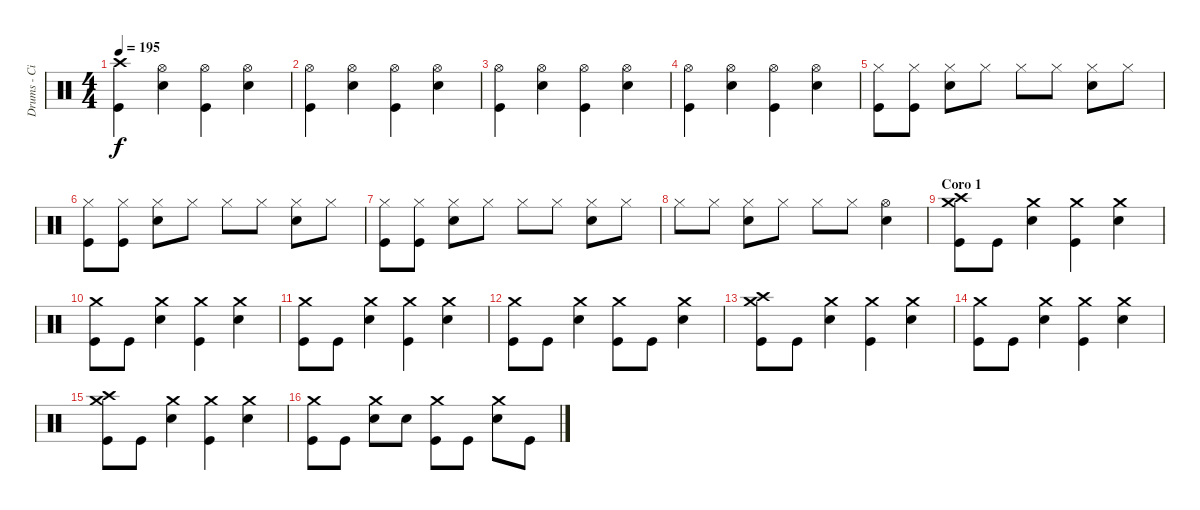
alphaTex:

\track ("Drums - Ciro" "Drums - Ci") {instrument percussion}
\staff {score}
\articulation defaults
\ts (4 4)
\tempo 195
\clef neutral
\ks c
("Crash high (hit)" "Kick (hit)").4{dy f} ("Hi-Hat (open)" "Electric Snare (hit)").4 ("Hi-Hat (open)" "Kick (hit)").4 ("Hi-Hat (open)" "Electric Snare (hit)").4 |
("Hi-Hat (open)" "Kick (hit)").4 ("Hi-Hat (open)" "Electric Snare (hit)").4 ("Hi-Hat (open)" "Kick (hit)").4 ("Hi-Hat (open)" "Electric Snare (hit)").4 |
("Hi-Hat (open)" "Kick (hit)").4 ("Hi-Hat (open)" "Electric Snare (hit)").4 ("Hi-Hat (open)" "Kick (hit)").4 ("Hi-Hat (open)" "Electric Snare (hit)").4 |
("Hi-Hat (open)" "Kick (hit)").4 ("Hi-Hat (open)" "Electric Snare (hit)").4 ("Hi-Hat (open)" "Kick (hit)").4 ("Hi-Hat (open)" "Electric Snare (hit)").4 |
("Hi-Hat (closed)" "Kick (hit)").8 ("Hi-Hat (closed)" "Kick (hit)").8 ("Hi-Hat (closed)" "Electric Snare (hit)").8 "Hi-Hat (closed)".8 "Hi-Hat (closed)".8 "Hi-Hat (closed)".8 ("Hi-Hat (closed)" "Electric Snare (hit)").8 "Hi-Hat (closed)".8 |
("Hi-Hat (closed)" "Kick (hit)").8 ("Hi-Hat (closed)" "Kick (hit)").8 ("Hi-Hat (closed)" "Electric Snare (hit)").8 "Hi-Hat (closed)".8 "Hi-Hat (closed)".8 "Hi-Hat (closed)".8 ("Hi-Hat (closed)" "Electric Snare (hit)").8 "Hi-Hat (closed)".8 |
("Hi-Hat (closed)" "Kick (hit)").8 ("Hi-Hat (closed)" "Kick (hit)").8 ("Hi-Hat (closed)" "Electric Snare (hit)").8 "Hi-Hat (closed)".8 "Hi-Hat (closed)".8 "Hi-Hat (closed)".8 ("Hi-Hat (closed)" "Electric Snare (hit)").8 "Hi-Hat (closed)".8 |
"Hi-Hat (closed)".8 "Hi-Hat (closed)".8 ("Hi-Hat (closed)" "Electric Snare (hit)").8 "Hi-Hat (closed)".8 "Hi-Hat (closed)".8 "Hi-Hat (closed)".8 ("Hi-Hat (open)" "Electric Snare (hit)").4 |
\section ("" "Coro 1")
("Crash medium (hit)" "Crash high (hit)" "Kick (hit)").8 "Kick (hit)".8 ("Crash medium (hit)" "Electric Snare (hit)").4 ("Crash medium (hit)" "Kick (hit)").4 ("Crash medium (hit)" "Electric Snare (hit)").4 |
("Crash medium (hit)" "Kick (hit)").8 "Kick (hit)".8 ("Crash medium (hit)" "Electric Snare (hit)").4 ("Crash medium (hit)" "Kick (hit)").4 ("Crash medium (hit)" "Electric Snare (hit)").4 |
("Crash medium (hit)" "Kick (hit)").8 "Kick (hit)".8 ("Crash medium (hit)" "Electric Snare (hit)").4 ("Crash medium (hit)" "Kick (hit)").4 ("Crash medium (hit)" "Electric Snare (hit)").4 |
("Crash medium (hit)" "Kick (hit)").8 "Kick (hit)".8 ("Crash medium (hit)" "Electric Snare (hit)").4 ("Crash medium (hit)" "Kick (hit)").8 "Kick (hit)".8 ("Crash medium (hit)" "Electric Snare (hit)").4 |
("Crash medium (hit)" "Crash high (hit)" "Kick (hit)").8 "Kick (hit)".8 ("Crash medium (hit)" "Electric Snare (hit)").4 ("Crash medium (hit)" "Kick (hit)").4 ("Crash medium (hit)" "Electric Snare (hit)").4 |
("Crash medium (hit)" "Kick (hit)").8 "Kick (hit)".8 ("Crash medium (hit)" "Electric Snare (hit)").4 ("Crash medium (hit)" "Kick (hit)").4 ("Crash medium (hit)" "Electric Snare (hit)").4 |
("Crash medium (hit)" "Crash high (hit)" "Kick (hit)").8 "Kick (hit)".8 ("Crash medium (hit)" "Electric Snare (hit)").4 ("Crash medium (hit)" "Kick (hit)").4 ("Crash medium (hit)" "Electric Snare (hit)").4 |
("Crash medium (hit)" "Kick (hit)").8 "Kick (hit)".8 ("Crash medium (hit)" "Electric Snare (hit)").8 "Electric Snare (hit)".8 ("Crash medium (hit)" "Kick (hit)").8 "Kick (hit)".8 ("Crash medium (hit)" "Electric Snare (hit)").8 "Kick (hit)".8
